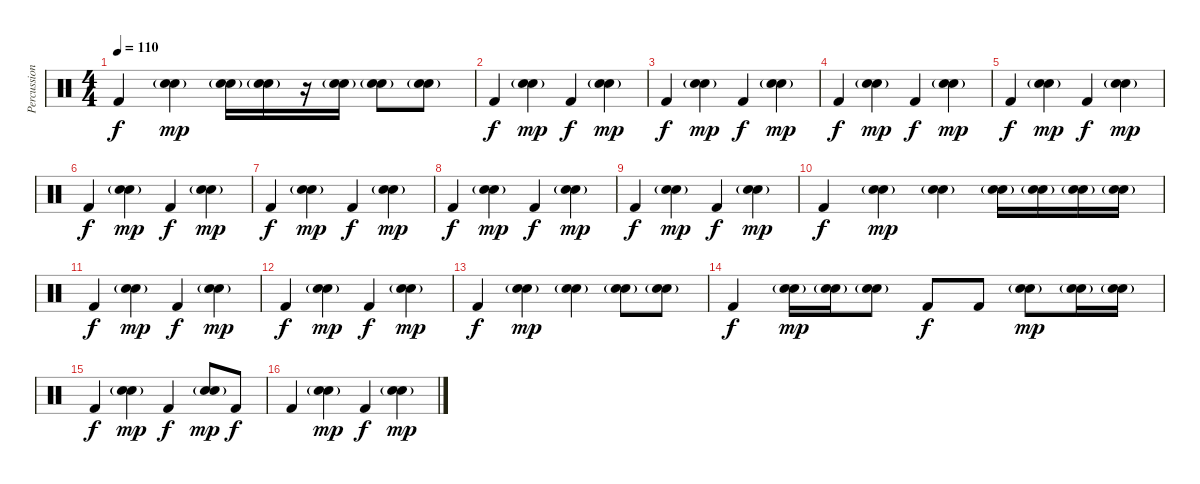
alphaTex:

\track ("Percussion" "Percussion") {instrument percussion}
\staff {score}
\articulation defaults
\ts (4 4)
\tempo 110
\clef neutral
\ks c "Kick (hit) 2".4{dy f}
("Electric Snare (hit)" "Snare (hit) 2"{g}).4{dy mp} ("Electric Snare (hit)" "Snare (hit) 2"{g}).16 ("Electric Snare (hit)"{g} "Snare (hit) 2"{g}).16 r.16 ("Electric Snare (hit)" "Snare (hit) 2"{g}).16 ("Electric Snare (hit)"{g} "Snare (hit) 2"{g}).8 ("Electric Snare (hit)" "Snare (hit) 2"{g}).8 |
"Kick (hit) 2".4{dy f} ("Electric Snare (hit)" "Snare (hit) 2"{g}).4{dy mp} "Kick (hit) 2".4{dy f} ("Electric Snare (hit)" "Snare (hit) 2"{g}).4{dy mp} |
"Kick (hit) 2".4{dy f} ("Electric Snare (hit)" "Snare (hit) 2"{g}).4{dy mp} "Kick (hit) 2".4{dy f} ("Electric Snare (hit)" "Snare (hit) 2"{g}).4{dy mp} |
"Kick (hit) 2".4{dy f} ("Electric Snare (hit)" "Snare (hit) 2"{g}).4{dy mp} "Kick (hit) 2".4{dy f} ("Electric Snare (hit)" "Snare (hit) 2"{g}).4{dy mp} |
"Kick (hit) 2".4{dy f} ("Electric Snare (hit)" "Snare (hit) 2"{g}).4{dy mp} "Kick (hit) 2".4{dy f} ("Electric Snare (hit)" "Snare (hit) 2"{g}).4{dy mp} |
"Kick (hit) 2".4{dy f} ("Electric Snare (hit)" "Snare (hit) 2"{g}).4{dy mp} "Kick (hit) 2".4{dy f} ("Electric Snare (hit)" "Snare (hit) 2"{g}).4{dy mp} |
"Kick (hit) 2".4{dy f} ("Electric Snare (hit)" "Snare (hit) 2"{g}).4{dy mp} "Kick (hit) 2".4{dy f} ("Electric Snare (hit)" "Snare (hit) 2"{g}).4{dy mp} |
"Kick (hit) 2".4{dy f} ("Electric Snare (hit)" "Snare (hit) 2"{g}).4{dy mp} "Kick (hit) 2".4{dy f} ("Electric Snare (hit)" "Snare (hit) 2"{g}).4{dy mp} |
"Kick (hit) 2".4{dy f} ("Electric Snare (hit)" "Snare (hit) 2"{g}).4{dy mp} "Kick (hit) 2".4{dy f} ("Electric Snare (hit)" "Snare (hit) 2"{g}).4{dy mp} |
"Kick (hit) 2".4{dy f} ("Electric Snare (hit)" "Snare (hit) 2"{g}).4{dy mp} ("Electric Snare (hit)" "Snare (hit) 2"{g}).4 ("Electric Snare (hit)" "Snare (hit) 2"{g}).16 ("Electric Snare (hit)"{g} "Snare (hit) 2"{g}).16 ("Electric Snare (hit)" "Snare (hit) 2"{g}).16 ("Electric Snare (hit)"{g} "Snare (hit) 2"{g}).16 |
"Kick (hit) 2".4{dy f} ("Electric Snare (hit)" "Snare (hit) 2"{g}).4{dy mp} "Kick (hit) 2".4{dy f} ("Electric Snare (hit)" "Snare (hit) 2"{g}).4{dy mp} |
"Kick (hit) 2".4{dy f} ("Electric Snare (hit)" "Snare (hit) 2"{g}).4{dy mp} "Kick (hit) 2".4{dy f} ("Electric Snare (hit)" "Snare (hit) 2"{g}).4{dy mp} |
"Kick (hit) 2".4{dy f} ("Electric Snare (hit)" "Snare (hit) 2"{g}).4{dy mp} ("Electric Snare (hit)" "Snare (hit) 2"{g}).4 ("Electric Snare (hit)" "Snare (hit) 2"{g}).8 ("Electric Snare (hit)"{g} "Snare (hit) 2"{g}).8 |
"Kick (hit) 2".4{dy f} ("Electric Snare (hit)" "Snare (hit) 2"{g}).16{dy mp} ("Electric Snare (hit)"{g} "Snare (hit) 2"{g}).16 ("Electric Snare (hit)" "Snare (hit) 2"{g}).8 "Kick (hit) 2".8{dy f} "Kick (hit) 2".8 ("Electric Snare (hit)" "Snare (hit) 2"{g}).8{dy mp} ("Electric Snare (hit)"{g} "Snare (hit) 2"{g}).16 ("Electric Snare (hit)" "Snare (hit) 2"{g}).16 |
"Kick (hit) 2".4{dy f} ("Electric Snare (hit)" "Snare (hit) 2"{g}).4{dy mp} "Kick (hit) 2".4{dy f} ("Electric Snare (hit)" "Snare (hit) 2"{g}).8{dy mp} "Kick (hit) 2".8{dy f} |
"Kick (hit) 2".4 ("Electric Snare (hit)" "Snare (hit) 2"{g}).4{dy mp} "Kick (hit) 2".4{dy f} ("Electric Snare (hit)" "Snare (hit) 2"{g}).4{dy mp}
